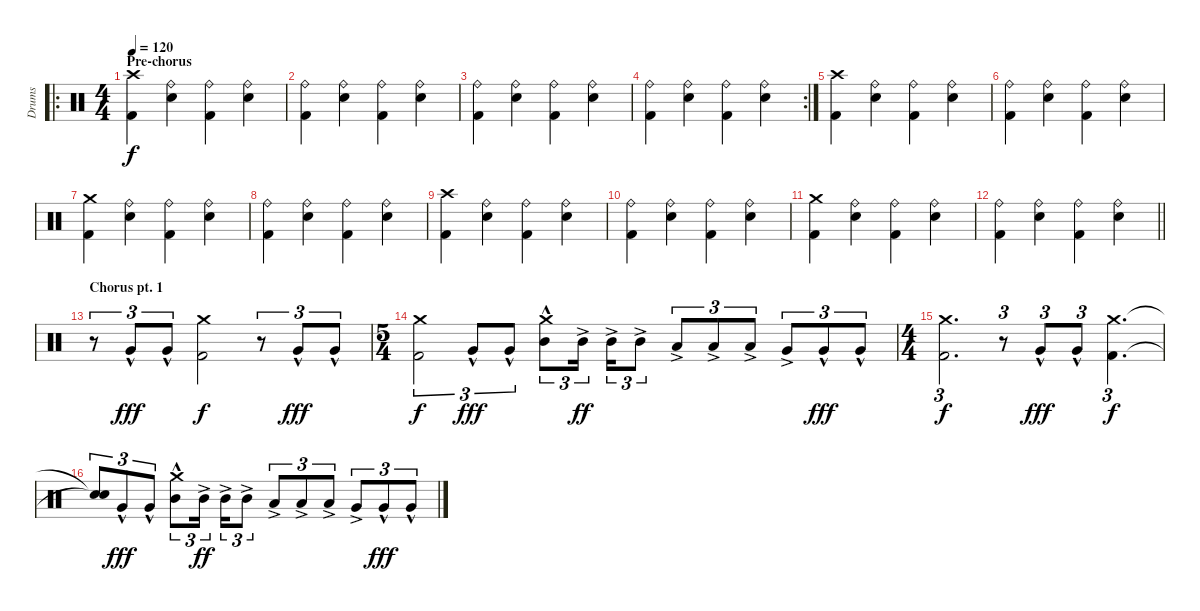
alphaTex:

\track ("Drums" "Drums") {instrument percussion}
\staff {score}
\articulation defaults
\ro
\ts (4 4)
\section ("" "Pre-chorus")
\tempo 120
\clef neutral
\ks c
("Crash high (hit)" "Kick (hit) 2").4{dy f} ("Ride (bell)" "Snare (hit) 2").4 ("Ride (bell)" "Kick (hit) 2").4 ("Ride (bell)" "Snare (hit) 2").4 |
("Ride (bell)" "Kick (hit) 2").4 ("Ride (bell)" "Snare (hit) 2").4 ("Ride (bell)" "Kick (hit) 2").4 ("Ride (bell)" "Snare (hit) 2").4 |
("Ride (bell)" "Kick (hit) 2").4 ("Ride (bell)" "Snare (hit) 2").4 ("Ride (bell)" "Kick (hit) 2").4 ("Ride (bell)" "Snare (hit) 2").4 |
\rc 2
("Ride (bell)" "Kick (hit) 2").4 ("Ride (bell)" "Snare (hit) 2").4 ("Ride (bell)" "Kick (hit) 2").4 ("Ride (bell)" "Snare (hit) 2").4 |
("Crash high (hit)" "Kick (hit) 2").4 ("Ride (bell)" "Snare (hit) 2").4 ("Ride (bell)" "Kick (hit) 2").4 ("Ride (bell)" "Snare (hit) 2").4 |
("Ride (bell)" "Kick (hit) 2").4 ("Ride (bell)" "Snare (hit) 2").4 ("Ride (bell)" "Kick (hit) 2").4 ("Ride (bell)" "Snare (hit) 2").4 |
("Crash medium (hit)" "Kick (hit) 2").4 ("Ride (bell)" "Snare (hit) 2").4 ("Ride (bell)" "Kick (hit) 2").4 ("Ride (bell)" "Snare (hit) 2").4 |
("Ride (bell)" "Kick (hit) 2").4 ("Ride (bell)" "Snare (hit) 2").4 ("Ride (bell)" "Kick (hit) 2").4 ("Ride (bell)" "Snare (hit) 2").4 |
("Crash high (hit)" "Kick (hit) 2").4 ("Ride (bell)" "Snare (hit) 2").4 ("Ride (bell)" "Kick (hit) 2").4 ("Ride (bell)" "Snare (hit) 2").4 |
("Ride (bell)" "Kick (hit) 2").4 ("Ride (bell)" "Snare (hit) 2").4 ("Ride (bell)" "Kick (hit) 2").4 ("Ride (bell)" "Snare (hit) 2").4 |
("Crash medium (hit)" "Kick (hit) 2").4 ("Ride (bell)" "Snare (hit) 2").4 ("Ride (bell)" "Kick (hit) 2").4 ("Ride (bell)" "Snare (hit) 2").4 |
\barLineRight lightlight
("Ride (bell)" "Kick (hit) 2").4 ("Ride (bell)" "Snare (hit) 2").4 ("Ride (bell)" "Kick (hit) 2").4 ("Ride (bell)" "Snare (hit) 2").4 |
\section ("" "Chorus pt. 1")
r.8{tu (3 2)} "Very Low Tom (hit)"{hac}.8{tu (3 2) dy fff} "Very Low Tom (hit)"{hac}.8{tu (3 2)} ("Crash medium (hit)" "Kick (hit) 2").2{dy f} r.8{tu (3 2)} "Very Low Tom (hit)"{hac}.8{tu (3 2) dy fff} "Very Low Tom (hit)"{hac}.8{tu (3 2)} |
\ts (5 4)
("Crash medium (hit)" "Kick (hit) 2").2{tu (3 2) dy f} "Very Low Tom (hit)"{hac}.8{tu (3 2) dy fff} "Very Low Tom (hit)"{hac}.8{tu (3 2)} ("Crash medium (hit)" "Mid Tom (hit)"{hac}).8{tu (3 2)} "Mid Tom (hit)"{ac}.16{tu (3 2) dy ff beam splitsecondary} "Mid Tom (hit)"{ac}.16{tu (3 2)} "Mid Tom (hit)"{ac}.8{tu (3 2)} "Low Tom (hit)"{ac}.8{tu (3 2)} "Low Tom (hit)"{ac}.8{tu (3 2)} "Low Tom (hit)"{ac}.8{tu (3 2)} "Very Low Tom (hit)"{ac}.8{tu (3 2)} "Very Low Tom (hit)"{hac}.8{tu (3 2) dy fff} "Very Low Tom (hit)"{hac}.8{tu (3 2)} |
\ts (4 4)
("Crash medium (hit)" "Kick (hit) 2").2{d tu (3 2) dy f} r.8{tu (3 2)} "Very Low Tom (hit)"{hac}.8{tu (3 2) dy fff} "Very Low Tom (hit)"{hac}.8{tu (3 2)} ("Crash medium (hit)" "Kick (hit) 2").4{d tu (3 2) dy f} |
("Snare (hit)"{t} "Snare (hit)"{t}).8{tu (3 2)} "Very Low Tom (hit)"{hac}.8{tu (3 2) dy fff} "Very Low Tom (hit)"{hac}.8{tu (3 2)} ("Crash medium (hit)" "Mid Tom (hit)"{hac}).8{tu (3 2)} "Mid Tom (hit)"{ac}.16{tu (3 2) dy ff beam splitsecondary} "Mid Tom (hit)"{ac}.16{tu (3 2)} "Mid Tom (hit)"{ac}.8{tu (3 2)} "Low Tom (hit)"{ac}.8{tu (3 2)} "Low Tom (hit)"{ac}.8{tu (3 2)} "Low Tom (hit)"{ac}.8{tu (3 2)} "Very Low Tom (hit)"{ac}.8{tu (3 2)} "Very Low Tom (hit)"{hac}.8{tu (3 2) dy fff} "Very Low Tom (hit)"{hac}.8{tu (3 2)}
